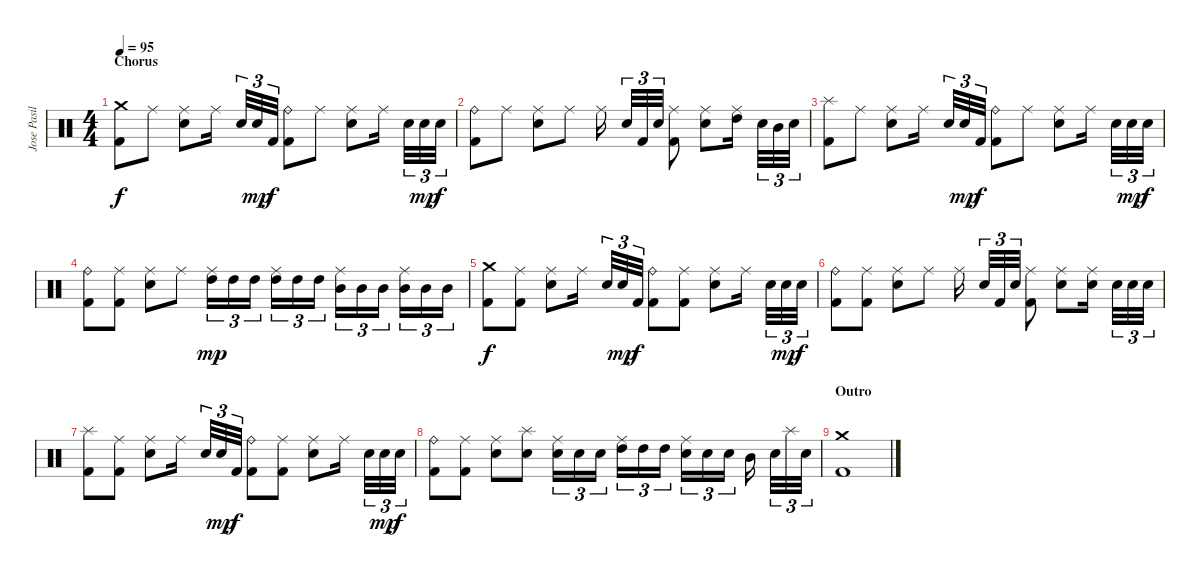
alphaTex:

\track ("Jose Pasillas II - Drums" "Jose Pasil") {instrument percussion}
\staff {score}
\articulation defaults
\ts (4 4)
\section ("" "Chorus")
\tempo 95
\clef neutral
\ks aminor
("Crash medium (hit)" "Kick (hit) 2").8{dy f} "Ride (middle)".8 ("Ride (middle)" "Electric Snare (hit)").8 "Ride (middle)".16 "Snare (hit)"{x}.32{tu (3 2)} "Electric Snare (hit)".32{tu (3 2) dy mp} "Kick (hit) 2"{x}.32{tu (3 2) dy f} ("Ride (bell)" "Kick (hit) 2").8 "Ride (middle)".8 ("Ride (middle)" "Electric Snare (hit)").8 "Ride (middle)".16 "Snare (hit)"{x}.32{tu (3 2)} "Electric Snare (hit)".32{tu (3 2) dy mp} "Snare (hit)"{x}.32{tu (3 2) dy f} |
("Ride (bell)" "Kick (hit) 2").8 "Ride (middle)".8 ("Ride (middle)" "Electric Snare (hit)").8 "Ride (middle)".8 "Ride (middle)".16 "Snare (hit)"{x}.32{tu (3 2)} "Kick (hit) 2".32{tu (3 2)} "Snare (hit)"{x}.32{tu (3 2)} ("Ride (middle)" "Kick (hit) 2").8 ("Ride (middle)" "Electric Snare (hit)").8 ("Ride (middle)" "High Tom (hit)").16 "Snare (hit)"{x}.32{tu (3 2)} "Mid Tom (hit)".32{tu (3 2)} "Snare (hit)"{x}.32{tu (3 2)} |
("Splash (hit)" "Kick (hit) 2").8 "Ride (middle)".8 ("Ride (middle)" "Electric Snare (hit)").8 "Ride (middle)".16 "Snare (hit)"{x}.32{tu (3 2)} "Electric Snare (hit)".32{tu (3 2) dy mp} "Kick (hit) 2"{x}.32{tu (3 2) dy f} ("Ride (bell)" "Kick (hit) 2").8 "Ride (middle)".8 ("Ride (middle)" "Electric Snare (hit)").8 "Ride (middle)".16 "Snare (hit)"{x}.32{tu (3 2)} "Electric Snare (hit)".32{tu (3 2) dy mp} "Snare (hit)"{x}.32{tu (3 2) dy f} |
("Ride (bell)" "Kick (hit) 2").8 ("Ride (middle)" "Kick (hit) 2").8 ("Ride (middle)" "Electric Snare (hit)").8 "Ride (middle)".8 ("Ride (middle)" "High Tom (hit)").16{tu (3 2) dy mp} "High Tom (hit)".16{tu (3 2)} "High Tom (hit)".16{tu (3 2)} ("Ride (middle)" "High Tom (hit)").16{tu (3 2)} "High Tom (hit)".16{tu (3 2)} "High Tom (hit)".16{tu (3 2)} ("Ride (middle)" "Mid Tom (hit)").16{tu (3 2)} "Mid Tom (hit)".16{tu (3 2)} "Mid Tom (hit)".16{tu (3 2)} ("Ride (middle)" "Mid Tom (hit)").16{tu (3 2)} "Mid Tom (hit)".16{tu (3 2)} "Mid Tom (hit)".16{tu (3 2)} |
("Crash medium (hit)" "Kick (hit) 2").8{dy f} ("Ride (middle)" "Kick (hit) 2").8 ("Ride (middle)" "Electric Snare (hit)").8 "Ride (middle)".16 "Snare (hit)"{x}.32{tu (3 2)} "Electric Snare (hit)".32{tu (3 2) dy mp} "Kick (hit) 2"{x}.32{tu (3 2) dy f} ("Ride (bell)" "Kick (hit) 2").8 ("Ride (middle)" "Kick (hit) 2").8 ("Ride (middle)" "Electric Snare (hit)").8 "Ride (middle)".16 "Snare (hit)"{x}.32{tu (3 2)} "Electric Snare (hit)".32{tu (3 2) dy mp} "Snare (hit)"{x}.32{tu (3 2) dy f} |
("Ride (bell)" "Kick (hit) 2").8 ("Ride (middle)" "Kick (hit) 2").8 ("Ride (middle)" "Electric Snare (hit)").8 "Ride (middle)".8 "Ride (middle)".16 "Snare (hit)"{x}.32{tu (3 2)} "Kick (hit) 2".32{tu (3 2)} "Snare (hit)"{x}.32{tu (3 2)} ("Ride (middle)" "Kick (hit) 2").8 ("Ride (middle)" "Electric Snare (hit)").8 ("Ride (middle)" "Electric Snare (hit)").16 "Snare (hit)"{x}.32{tu (3 2)} "Electric Snare (hit)".32{tu (3 2)} "Snare (hit)"{x}.32{tu (3 2)} |
("Splash (hit)" "Kick (hit) 2").8 ("Ride (middle)" "Kick (hit) 2").8 ("Ride (middle)" "Electric Snare (hit)").8 "Ride (middle)".16 "Snare (hit)"{x}.32{tu (3 2)} "Electric Snare (hit)".32{tu (3 2) dy mp} "Kick (hit) 2"{x}.32{tu (3 2) dy f} ("Ride (bell)" "Kick (hit) 2").8 ("Ride (middle)" "Kick (hit) 2").8 ("Ride (middle)" "Electric Snare (hit)").8 "Ride (middle)".16 "Snare (hit)"{x}.32{tu (3 2)} "Electric Snare (hit)".32{tu (3 2) dy mp} "Snare (hit)"{x}.32{tu (3 2) dy f} |
("Ride (bell)" "Kick (hit) 2").8 ("Ride (middle)" "Kick (hit) 2").8 ("Ride (middle)" "Electric Snare (hit)").8 ("Splash (hit)" "Electric Snare (hit)").8 ("Ride (middle)" "Electric Snare (hit)").16{tu (3 2)} "Electric Snare (hit)".16{tu (3 2)} "Electric Snare (hit)".16{tu (3 2)} ("Ride (middle)" "High Tom (hit)").16{tu (3 2)} "High Tom (hit)".16{tu (3 2)} "High Tom (hit)".16{tu (3 2)} ("Ride (middle)" "Electric Snare (hit)").16{tu (3 2)} "Electric Snare (hit)".16{tu (3 2)} "Electric Snare (hit)".16{tu (3 2)} "Mid Tom (hit)".16 "Snare (hit)"{x}.32{tu (3 2)} "Splash (hit)".32{tu (3 2)} "Snare (hit)"{x}.32{tu (3 2)} |
\section ("" "Outro")
("Crash medium (hit)" "Kick (hit) 2").1
